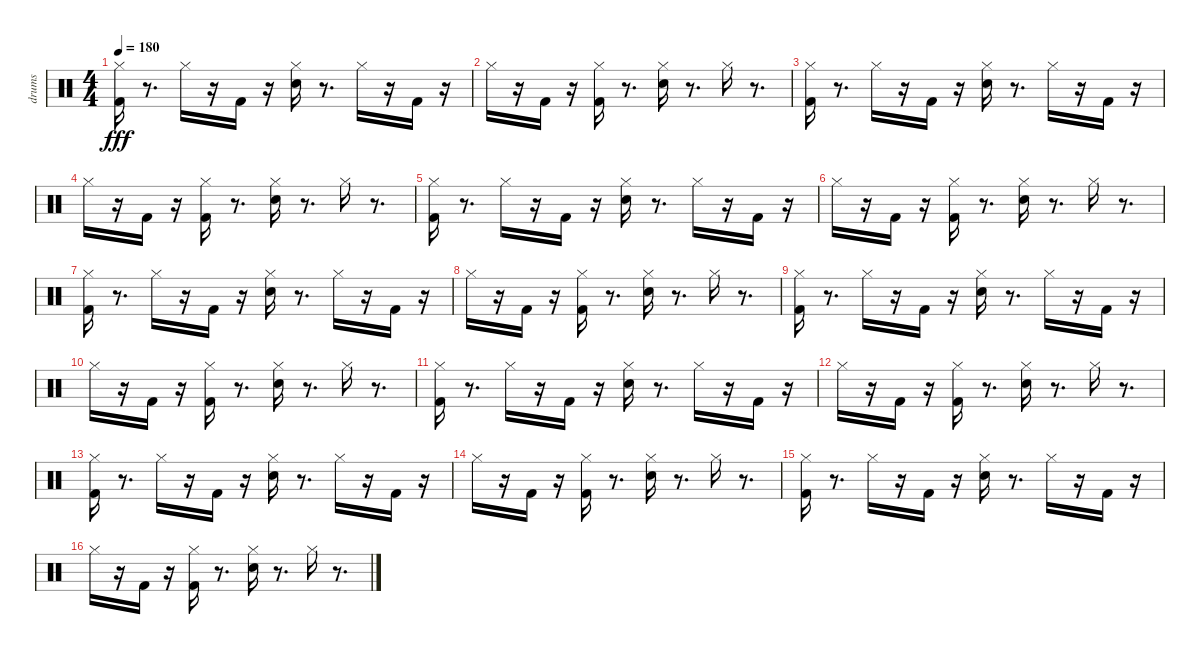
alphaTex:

\track ("drums" "drums") {instrument percussion}
\staff {score}
\articulation defaults
\ts (4 4)
\tempo 180
\clef neutral
\ks c
("Kick (hit) 2" "Hi-Hat (closed)").16{dy fff} r.8{d} "Hi-Hat (closed)".16 r.16 "Kick (hit) 2".16 r.16 ("Electric Snare (hit)" "Hi-Hat (closed)").16 r.8{d} "Hi-Hat (closed)".16 r.16 "Kick (hit) 2".16 r.16 |
"Hi-Hat (closed)".16 r.16 "Kick (hit) 2".16 r.16 ("Hi-Hat (closed)" "Kick (hit) 2").16 r.8{d} ("Hi-Hat (closed)" "Electric Snare (hit)").16 r.8{d} "Hi-Hat (closed)".16 r.8{d} |
("Kick (hit) 2" "Hi-Hat (closed)").16 r.8{d} "Hi-Hat (closed)".16 r.16 "Kick (hit) 2".16 r.16 ("Electric Snare (hit)" "Hi-Hat (closed)").16 r.8{d} "Hi-Hat (closed)".16 r.16 "Kick (hit) 2".16 r.16 |
"Hi-Hat (closed)".16 r.16 "Kick (hit) 2".16 r.16 ("Hi-Hat (closed)" "Kick (hit) 2").16 r.8{d} ("Hi-Hat (closed)" "Electric Snare (hit)").16 r.8{d} "Hi-Hat (closed)".16 r.8{d} |
("Kick (hit) 2" "Hi-Hat (closed)").16 r.8{d} "Hi-Hat (closed)".16 r.16 "Kick (hit) 2".16 r.16 ("Electric Snare (hit)" "Hi-Hat (closed)").16 r.8{d} "Hi-Hat (closed)".16 r.16 "Kick (hit) 2".16 r.16 |
"Hi-Hat (closed)".16 r.16 "Kick (hit) 2".16 r.16 ("Hi-Hat (closed)" "Kick (hit) 2").16 r.8{d} ("Hi-Hat (closed)" "Electric Snare (hit)").16 r.8{d} "Hi-Hat (closed)".16 r.8{d} |
("Kick (hit) 2" "Hi-Hat (closed)").16 r.8{d} "Hi-Hat (closed)".16 r.16 "Kick (hit) 2".16 r.16 ("Electric Snare (hit)" "Hi-Hat (closed)").16 r.8{d} "Hi-Hat (closed)".16 r.16 "Kick (hit) 2".16 r.16 |
"Hi-Hat (closed)".16 r.16 "Kick (hit) 2".16 r.16 ("Hi-Hat (closed)" "Kick (hit) 2").16 r.8{d} ("Hi-Hat (closed)" "Electric Snare (hit)").16 r.8{d} "Hi-Hat (closed)".16 r.8{d} |
("Kick (hit) 2" "Hi-Hat (closed)").16 r.8{d} "Hi-Hat (closed)".16 r.16 "Kick (hit) 2".16 r.16 ("Electric Snare (hit)" "Hi-Hat (closed)").16 r.8{d} "Hi-Hat (closed)".16 r.16 "Kick (hit) 2".16 r.16 |
"Hi-Hat (closed)".16 r.16 "Kick (hit) 2".16 r.16 ("Hi-Hat (closed)" "Kick (hit) 2").16 r.8{d} ("Hi-Hat (closed)" "Electric Snare (hit)").16 r.8{d} "Hi-Hat (closed)".16 r.8{d} |
("Kick (hit) 2" "Hi-Hat (closed)").16 r.8{d} "Hi-Hat (closed)".16 r.16 "Kick (hit) 2".16 r.16 ("Electric Snare (hit)" "Hi-Hat (closed)").16 r.8{d} "Hi-Hat (closed)".16 r.16 "Kick (hit) 2".16 r.16 |
"Hi-Hat (closed)".16 r.16 "Kick (hit) 2".16 r.16 ("Hi-Hat (closed)" "Kick (hit) 2").16 r.8{d} ("Hi-Hat (closed)" "Electric Snare (hit)").16 r.8{d} "Hi-Hat (closed)".16 r.8{d} |
("Kick (hit) 2" "Hi-Hat (closed)").16 r.8{d} "Hi-Hat (closed)".16 r.16 "Kick (hit) 2".16 r.16 ("Electric Snare (hit)" "Hi-Hat (closed)").16 r.8{d} "Hi-Hat (closed)".16 r.16 "Kick (hit) 2".16 r.16 |
"Hi-Hat (closed)".16 r.16 "Kick (hit) 2".16 r.16 ("Hi-Hat (closed)" "Kick (hit) 2").16 r.8{d} ("Hi-Hat (closed)" "Electric Snare (hit)").16 r.8{d} "Hi-Hat (closed)".16 r.8{d} |
("Kick (hit) 2" "Hi-Hat (closed)").16 r.8{d} "Hi-Hat (closed)".16 r.16 "Kick (hit) 2".16 r.16 ("Electric Snare (hit)" "Hi-Hat (closed)").16 r.8{d} "Hi-Hat (closed)".16 r.16 "Kick (hit) 2".16 r.16 |
"Hi-Hat (closed)".16 r.16 "Kick (hit) 2".16 r.16 ("Hi-Hat (closed)" "Kick (hit) 2").16 r.8{d} ("Hi-Hat (closed)" "Electric Snare (hit)").16 r.8{d} "Hi-Hat (closed)".16 r.8{d}
